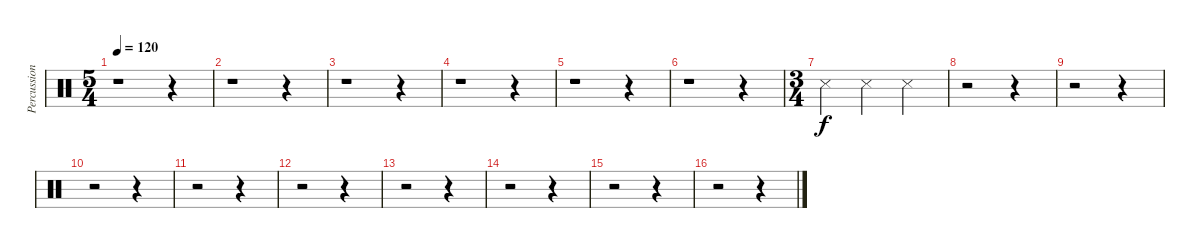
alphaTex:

\track ("Percussion" "Percussion") {instrument percussion}
\staff {score}
\articulation defaults
\ts (5 4)
\tempo 120
\clef neutral
\ks c
r.1{dy f} r.4 |
r.1 r.4 |
r.1 r.4 |
r.1 r.4 |
r.1 r.4 |
r.1 r.4 |
\ts (3 4)
"Snare (side stick) 3".4 "Snare (side stick) 3".4 "Snare (side stick) 3".4 |
r.2 r.4 |
r.2 r.4 |
r.2 r.4 |
r.2 r.4 |
r.2 r.4 |
r.2 r.4 |
r.2 r.4 |
r.2 r.4 |
r.2 r.4
